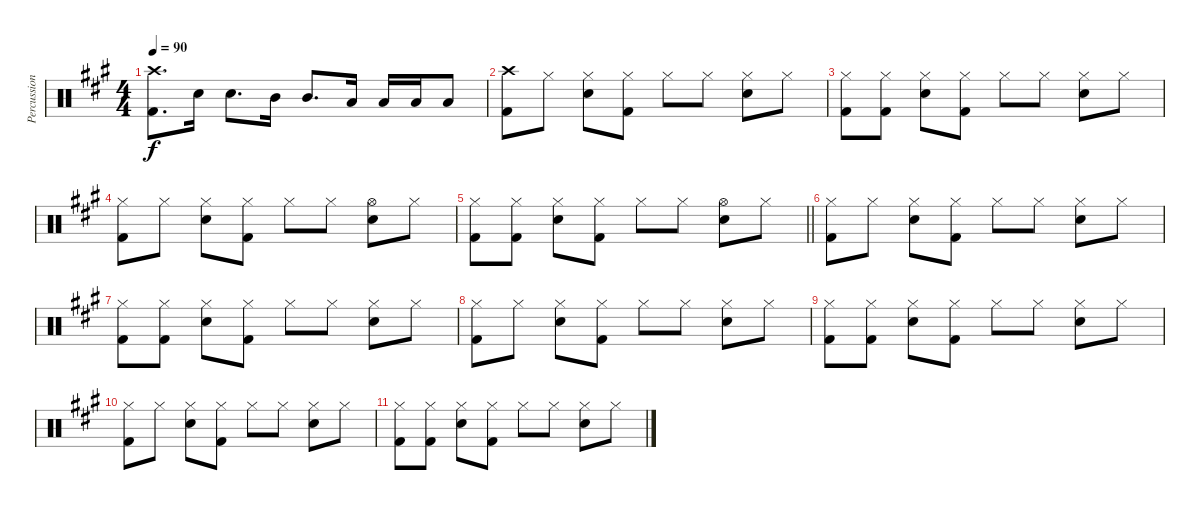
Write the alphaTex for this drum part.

\track ("Percussion" "Percussion") {instrument percussion}
\staff {score}
\articulation defaults
\ts (4 4)
\tempo 90
\clef neutral
\ks a
("Crash high (hit)" "Kick (hit) 2").8{d dy f} "Snare (hit) 2".16 "Snare (hit) 2".8{d} "Mid Tom (hit)".16 "Mid Tom (hit)".8{d} "Low Floor Tom (hit)".16 "Low Floor Tom (hit)".16 "Low Floor Tom (hit)".16 "Low Floor Tom (hit)".8 |
("Crash high (hit)" "Kick (hit) 2").8 "Hi-Hat (closed)".8 ("Hi-Hat (closed)" "Snare (hit) 2").8 ("Hi-Hat (closed)" "Kick (hit) 2").8 "Hi-Hat (closed)".8 "Hi-Hat (closed)".8 ("Hi-Hat (closed)" "Snare (hit) 2").8 "Hi-Hat (closed)".8 |
("Hi-Hat (closed)" "Kick (hit) 2").8 ("Hi-Hat (closed)" "Kick (hit) 2").8 ("Hi-Hat (closed)" "Snare (hit) 2").8 ("Hi-Hat (closed)" "Kick (hit) 2").8 "Hi-Hat (closed)".8 "Hi-Hat (closed)".8 ("Hi-Hat (closed)" "Snare (hit) 2").8 "Hi-Hat (closed)".8 |
("Hi-Hat (closed)" "Kick (hit) 2").8 "Hi-Hat (closed)".8 ("Hi-Hat (closed)" "Snare (hit) 2").8 ("Hi-Hat (closed)" "Kick (hit) 2").8 "Hi-Hat (closed)".8 "Hi-Hat (closed)".8 ("Hi-Hat (open)" "Snare (hit) 2").8 "Hi-Hat (closed)".8 |
\barLineRight lightlight
("Hi-Hat (closed)" "Kick (hit) 2").8 ("Hi-Hat (closed)" "Kick (hit) 2").8 ("Hi-Hat (closed)" "Snare (hit) 2").8 ("Hi-Hat (closed)" "Kick (hit) 2").8 "Hi-Hat (closed)".8 "Hi-Hat (closed)".8 ("Hi-Hat (open)" "Snare (hit) 2").8 "Hi-Hat (closed)".8 |
("Hi-Hat (closed)" "Kick (hit) 2").8 "Hi-Hat (closed)".8 ("Hi-Hat (closed)" "Snare (hit) 2").8 ("Hi-Hat (closed)" "Kick (hit) 2").8 "Hi-Hat (closed)".8 "Hi-Hat (closed)".8 ("Hi-Hat (closed)" "Snare (hit) 2").8 "Hi-Hat (closed)".8 |
("Hi-Hat (closed)" "Kick (hit) 2").8 ("Hi-Hat (closed)" "Kick (hit) 2").8 ("Hi-Hat (closed)" "Snare (hit) 2").8 ("Hi-Hat (closed)" "Kick (hit) 2").8 "Hi-Hat (closed)".8 "Hi-Hat (closed)".8 ("Hi-Hat (closed)" "Snare (hit) 2").8 "Hi-Hat (closed)".8 |
("Hi-Hat (closed)" "Kick (hit) 2").8 "Hi-Hat (closed)".8 ("Hi-Hat (closed)" "Snare (hit) 2").8 ("Hi-Hat (closed)" "Kick (hit) 2").8 "Hi-Hat (closed)".8 "Hi-Hat (closed)".8 ("Hi-Hat (closed)" "Snare (hit) 2").8 "Hi-Hat (closed)".8 |
("Hi-Hat (closed)" "Kick (hit) 2").8 ("Hi-Hat (closed)" "Kick (hit) 2").8 ("Hi-Hat (closed)" "Snare (hit) 2").8 ("Hi-Hat (closed)" "Kick (hit) 2").8 "Hi-Hat (closed)".8 "Hi-Hat (closed)".8 ("Hi-Hat (closed)" "Snare (hit) 2").8 "Hi-Hat (closed)".8 |
("Hi-Hat (closed)" "Kick (hit) 2").8 "Hi-Hat (closed)".8 ("Hi-Hat (closed)" "Snare (hit) 2").8 ("Hi-Hat (closed)" "Kick (hit) 2").8 "Hi-Hat (closed)".8 "Hi-Hat (closed)".8 ("Hi-Hat (closed)" "Snare (hit) 2").8 "Hi-Hat (closed)".8 |
("Hi-Hat (closed)" "Kick (hit) 2").8 ("Hi-Hat (closed)" "Kick (hit) 2").8 ("Hi-Hat (closed)" "Snare (hit) 2").8 ("Hi-Hat (closed)" "Kick (hit) 2").8 "Hi-Hat (closed)".8 "Hi-Hat (closed)".8 ("Hi-Hat (closed)" "Snare (hit) 2").8 "Hi-Hat (closed)".8
